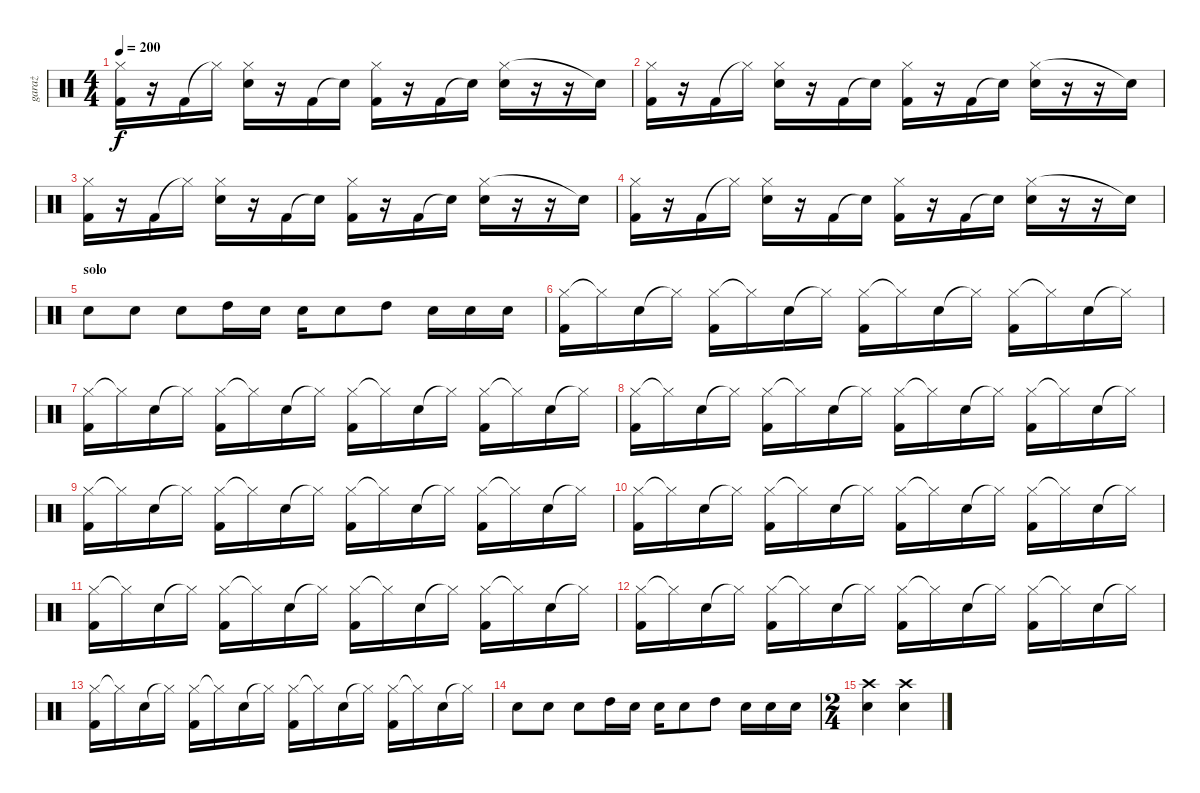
\track ("garaż" "garaż") {instrument percussion}
\staff {score}
\articulation defaults
\ts (4 4)
\tempo 200
\clef neutral
\ks c
("Hi-Hat (closed)" "Kick (hit) 2").16{dy f} r.16 "Kick (hit) 2".16 "Hi-Hat (closed)"{t}.16 ("Hi-Hat (closed)" "Snare (hit) 2").16 r.16 "Kick (hit) 2".16 "Snare (hit)"{t}.16 ("Hi-Hat (closed)" "Kick (hit) 2").16 r.16 "Kick (hit) 2".16 "Snare (hit)"{t}.16 ("Hi-Hat (closed)" "Snare (hit) 2").16 r.16 r.16 "Snare (hit)"{t}.16 |
("Hi-Hat (closed)" "Kick (hit) 2").16 r.16 "Kick (hit) 2".16 "Hi-Hat (closed)"{t}.16 ("Hi-Hat (closed)" "Snare (hit) 2").16 r.16 "Kick (hit) 2".16 "Snare (hit)"{t}.16 ("Hi-Hat (closed)" "Kick (hit) 2").16 r.16 "Kick (hit) 2".16 "Snare (hit)"{t}.16 ("Hi-Hat (closed)" "Snare (hit) 2").16 r.16 r.16 "Snare (hit)"{t}.16 |
("Hi-Hat (closed)" "Kick (hit) 2").16 r.16 "Kick (hit) 2".16 "Hi-Hat (closed)"{t}.16 ("Hi-Hat (closed)" "Snare (hit) 2").16 r.16 "Kick (hit) 2".16 "Snare (hit)"{t}.16 ("Hi-Hat (closed)" "Kick (hit) 2").16 r.16 "Kick (hit) 2".16 "Snare (hit)"{t}.16 ("Hi-Hat (closed)" "Snare (hit) 2").16 r.16 r.16 "Snare (hit)"{t}.16 |
("Hi-Hat (closed)" "Kick (hit) 2").16 r.16 "Kick (hit) 2".16 "Hi-Hat (closed)"{t}.16 ("Hi-Hat (closed)" "Snare (hit) 2").16 r.16 "Kick (hit) 2".16 "Snare (hit)"{t}.16 ("Hi-Hat (closed)" "Kick (hit) 2").16 r.16 "Kick (hit) 2".16 "Snare (hit)"{t}.16 ("Hi-Hat (closed)" "Snare (hit) 2").16 r.16 r.16 "Snare (hit)"{t}.16 |
\section ("" "solo")
"Snare (hit) 2".8 "Snare (hit) 2".8 "Snare (hit) 2".8 "High Tom (hit)".16 "Snare (hit) 2".16 "Snare (hit) 2".16 "Snare (hit) 2".8 "High Tom (hit)".8 "Snare (hit) 2".16 "Snare (hit) 2".16 "Snare (hit) 2".16 |
("Hi-Hat (closed)" "Kick (hit) 2").16 "Hi-Hat (closed)"{t}.16 "Snare (hit) 2".16 "Hi-Hat (closed)"{t}.16 ("Hi-Hat (closed)" "Kick (hit) 2").16 "Hi-Hat (closed)"{t}.16 "Snare (hit) 2".16 "Hi-Hat (closed)"{t}.16 ("Hi-Hat (closed)" "Kick (hit) 2").16 "Hi-Hat (closed)"{t}.16 "Snare (hit) 2".16 "Hi-Hat (closed)"{t}.16 ("Hi-Hat (closed)" "Kick (hit) 2").16 "Hi-Hat (closed)"{t}.16 "Snare (hit) 2".16 "Hi-Hat (closed)"{t}.16 |
("Hi-Hat (closed)" "Kick (hit) 2").16 "Hi-Hat (closed)"{t}.16 "Snare (hit) 2".16 "Hi-Hat (closed)"{t}.16 ("Hi-Hat (closed)" "Kick (hit) 2").16 "Hi-Hat (closed)"{t}.16 "Snare (hit) 2".16 "Hi-Hat (closed)"{t}.16 ("Hi-Hat (closed)" "Kick (hit) 2").16 "Hi-Hat (closed)"{t}.16 "Snare (hit) 2".16 "Hi-Hat (closed)"{t}.16 ("Hi-Hat (closed)" "Kick (hit) 2").16 "Hi-Hat (closed)"{t}.16 "Snare (hit) 2".16 "Hi-Hat (closed)"{t}.16 |
("Hi-Hat (closed)" "Kick (hit) 2").16 "Hi-Hat (closed)"{t}.16 "Snare (hit) 2".16 "Hi-Hat (closed)"{t}.16 ("Hi-Hat (closed)" "Kick (hit) 2").16 "Hi-Hat (closed)"{t}.16 "Snare (hit) 2".16 "Hi-Hat (closed)"{t}.16 ("Hi-Hat (closed)" "Kick (hit) 2").16 "Hi-Hat (closed)"{t}.16 "Snare (hit) 2".16 "Hi-Hat (closed)"{t}.16 ("Hi-Hat (closed)" "Kick (hit) 2").16 "Hi-Hat (closed)"{t}.16 "Snare (hit) 2".16 "Hi-Hat (closed)"{t}.16 |
("Hi-Hat (closed)" "Kick (hit) 2").16 "Hi-Hat (closed)"{t}.16 "Snare (hit) 2".16 "Hi-Hat (closed)"{t}.16 ("Hi-Hat (closed)" "Kick (hit) 2").16 "Hi-Hat (closed)"{t}.16 "Snare (hit) 2".16 "Hi-Hat (closed)"{t}.16 ("Hi-Hat (closed)" "Kick (hit) 2").16 "Hi-Hat (closed)"{t}.16 "Snare (hit) 2".16 "Hi-Hat (closed)"{t}.16 ("Hi-Hat (closed)" "Kick (hit) 2").16 "Hi-Hat (closed)"{t}.16 "Snare (hit) 2".16 "Hi-Hat (closed)"{t}.16 |
("Hi-Hat (closed)" "Kick (hit) 2").16 "Hi-Hat (closed)"{t}.16 "Snare (hit) 2".16 "Hi-Hat (closed)"{t}.16 ("Hi-Hat (closed)" "Kick (hit) 2").16 "Hi-Hat (closed)"{t}.16 "Snare (hit) 2".16 "Hi-Hat (closed)"{t}.16 ("Hi-Hat (closed)" "Kick (hit) 2").16 "Hi-Hat (closed)"{t}.16 "Snare (hit) 2".16 "Hi-Hat (closed)"{t}.16 ("Hi-Hat (closed)" "Kick (hit) 2").16 "Hi-Hat (closed)"{t}.16 "Snare (hit) 2".16 "Hi-Hat (closed)"{t}.16 |
("Hi-Hat (closed)" "Kick (hit) 2").16 "Hi-Hat (closed)"{t}.16 "Snare (hit) 2".16 "Hi-Hat (closed)"{t}.16 ("Hi-Hat (closed)" "Kick (hit) 2").16 "Hi-Hat (closed)"{t}.16 "Snare (hit) 2".16 "Hi-Hat (closed)"{t}.16 ("Hi-Hat (closed)" "Kick (hit) 2").16 "Hi-Hat (closed)"{t}.16 "Snare (hit) 2".16 "Hi-Hat (closed)"{t}.16 ("Hi-Hat (closed)" "Kick (hit) 2").16 "Hi-Hat (closed)"{t}.16 "Snare (hit) 2".16 "Hi-Hat (closed)"{t}.16 |
("Hi-Hat (closed)" "Kick (hit) 2").16 "Hi-Hat (closed)"{t}.16 "Snare (hit) 2".16 "Hi-Hat (closed)"{t}.16 ("Hi-Hat (closed)" "Kick (hit) 2").16 "Hi-Hat (closed)"{t}.16 "Snare (hit) 2".16 "Hi-Hat (closed)"{t}.16 ("Hi-Hat (closed)" "Kick (hit) 2").16 "Hi-Hat (closed)"{t}.16 "Snare (hit) 2".16 "Hi-Hat (closed)"{t}.16 ("Hi-Hat (closed)" "Kick (hit) 2").16 "Hi-Hat (closed)"{t}.16 "Snare (hit) 2".16 "Hi-Hat (closed)"{t}.16 |
("Hi-Hat (closed)" "Kick (hit) 2").16 "Hi-Hat (closed)"{t}.16 "Snare (hit) 2".16 "Hi-Hat (closed)"{t}.16 ("Hi-Hat (closed)" "Kick (hit) 2").16 "Hi-Hat (closed)"{t}.16 "Snare (hit) 2".16 "Hi-Hat (closed)"{t}.16 ("Hi-Hat (closed)" "Kick (hit) 2").16 "Hi-Hat (closed)"{t}.16 "Snare (hit) 2".16 "Hi-Hat (closed)"{t}.16 ("Hi-Hat (closed)" "Kick (hit) 2").16 "Hi-Hat (closed)"{t}.16 "Snare (hit) 2".16 "Hi-Hat (closed)"{t}.16 |
"Snare (hit) 2".8 "Snare (hit) 2".8 "Snare (hit) 2".8 "High Tom (hit)".16 "Snare (hit) 2".16 "Snare (hit) 2".16 "Snare (hit) 2".8 "High Tom (hit)".8 "Snare (hit) 2".16 "Snare (hit) 2".16 "Snare (hit) 2".16 |
\ts (2 4)
("Crash high (hit)" "Snare (hit) 2").4 ("Crash high (hit)" "Snare (hit) 2").4
